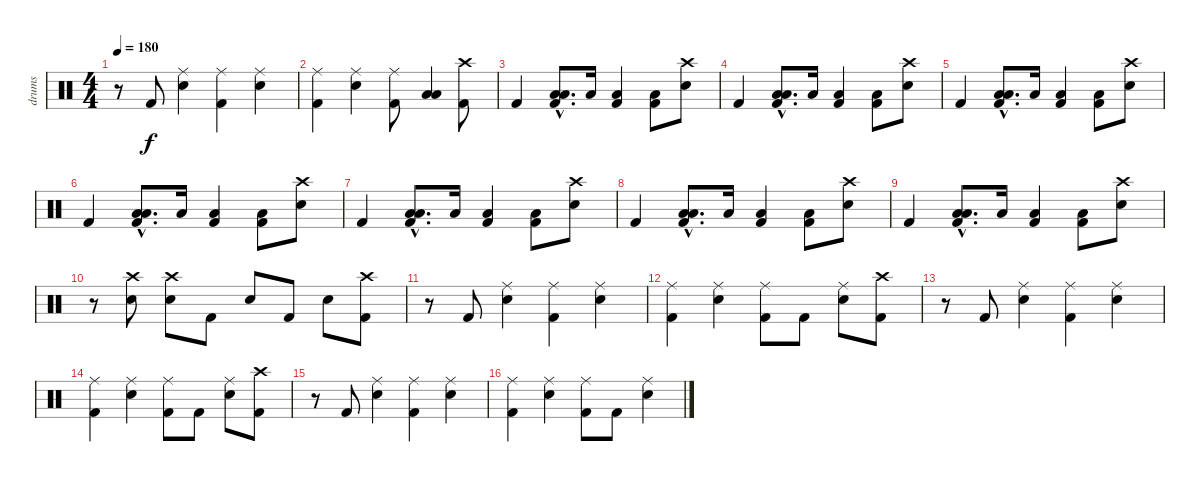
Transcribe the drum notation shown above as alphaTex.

\track ("drums" "drums") {instrument percussion}
\staff {score}
\articulation defaults
\ts (4 4)
\tempo 180
\clef neutral
\ks c
r.8{dy f} "Kick (hit) 2".8 ("Ride (middle)" "Electric Snare (hit)").4 ("Ride (middle)" "Kick (hit) 2").4 ("Ride (middle)" "Electric Snare (hit)").4 |
("Ride (middle)" "Kick (hit) 2").4 ("Ride (middle)" "Electric Snare (hit)").4 ("Ride (middle)" "Kick (hit) 2").8 ("Low Tom (hit)" "Low Floor Tom (hit)").4 ("Crash high (hit)" "Kick (hit) 2").8 |
"Kick (hit) 2".4 ("Low Tom (hit)"{hac} "Low Floor Tom (hit)"{hac} "Kick (hit) 2"{hac}).8{d} "Low Tom (hit)".16 ("Low Floor Tom (hit)" "Kick (hit) 2").4 ("Low Floor Tom (hit)" "Kick (hit) 2").8 ("Crash high (hit)" "Electric Snare (hit)").8 |
"Kick (hit) 2".4 ("Low Tom (hit)"{hac} "Low Floor Tom (hit)"{hac} "Kick (hit) 2"{hac}).8{d} "Low Tom (hit)".16 ("Low Floor Tom (hit)" "Kick (hit) 2").4 ("Low Floor Tom (hit)" "Kick (hit) 2").8 ("Crash high (hit)" "Electric Snare (hit)").8 |
"Kick (hit) 2".4 ("Low Tom (hit)"{hac} "Low Floor Tom (hit)"{hac} "Kick (hit) 2"{hac}).8{d} "Low Tom (hit)".16 ("Low Floor Tom (hit)" "Kick (hit) 2").4 ("Low Floor Tom (hit)" "Kick (hit) 2").8 ("Crash high (hit)" "Electric Snare (hit)").8 |
"Kick (hit) 2".4 ("Low Tom (hit)"{hac} "Low Floor Tom (hit)"{hac} "Kick (hit) 2"{hac}).8{d} "Low Tom (hit)".16 ("Low Floor Tom (hit)" "Kick (hit) 2").4 ("Low Floor Tom (hit)" "Kick (hit) 2").8 ("Crash high (hit)" "Electric Snare (hit)").8 |
"Kick (hit) 2".4 ("Low Tom (hit)"{hac} "Low Floor Tom (hit)"{hac} "Kick (hit) 2"{hac}).8{d} "Low Tom (hit)".16 ("Low Floor Tom (hit)" "Kick (hit) 2").4 ("Low Floor Tom (hit)" "Kick (hit) 2").8 ("Crash high (hit)" "Electric Snare (hit)").8 |
"Kick (hit) 2".4 ("Low Tom (hit)"{hac} "Low Floor Tom (hit)"{hac} "Kick (hit) 2"{hac}).8{d} "Low Tom (hit)".16 ("Low Floor Tom (hit)" "Kick (hit) 2").4 ("Low Floor Tom (hit)" "Kick (hit) 2").8 ("Crash high (hit)" "Electric Snare (hit)").8 |
"Kick (hit) 2".4 ("Low Tom (hit)"{hac} "Low Floor Tom (hit)"{hac} "Kick (hit) 2"{hac}).8{d} "Low Tom (hit)".16 ("Low Floor Tom (hit)" "Kick (hit) 2").4 ("Low Floor Tom (hit)" "Kick (hit) 2").8 ("Crash high (hit)" "Electric Snare (hit)").8 |
r.8 ("Crash high (hit)" "Electric Snare (hit)").8 ("Crash high (hit)" "Electric Snare (hit)").8 "Kick (hit) 2".8 "Electric Snare (hit)".8 "Kick (hit) 2".8 "Electric Snare (hit)".8 ("Crash high (hit)" "Kick (hit) 2").8 |
r.8 "Kick (hit) 2".8 ("Ride (middle)" "Electric Snare (hit)").4 ("Ride (middle)" "Kick (hit) 2").4 ("Ride (middle)" "Electric Snare (hit)").4 |
("Ride (middle)" "Kick (hit) 2").4 ("Ride (middle)" "Electric Snare (hit)").4 ("Ride (middle)" "Kick (hit) 2").8 "Kick (hit) 2".8 ("Ride (middle)" "Electric Snare (hit)").8 ("Crash high (hit)" "Kick (hit) 2").8 |
r.8 "Kick (hit) 2".8 ("Ride (middle)" "Electric Snare (hit)").4 ("Ride (middle)" "Kick (hit) 2").4 ("Ride (middle)" "Electric Snare (hit)").4 |
("Ride (middle)" "Kick (hit) 2").4 ("Ride (middle)" "Electric Snare (hit)").4 ("Ride (middle)" "Kick (hit) 2").8 "Kick (hit) 2".8 ("Ride (middle)" "Electric Snare (hit)").8 ("Crash high (hit)" "Kick (hit) 2").8 |
r.8 "Kick (hit) 2".8 ("Ride (middle)" "Electric Snare (hit)").4 ("Ride (middle)" "Kick (hit) 2").4 ("Ride (middle)" "Electric Snare (hit)").4 |
("Ride (middle)" "Kick (hit) 2").4 ("Ride (middle)" "Electric Snare (hit)").4 ("Ride (middle)" "Kick (hit) 2").8 "Kick (hit) 2".8 ("Ride (middle)" "Electric Snare (hit)").4
